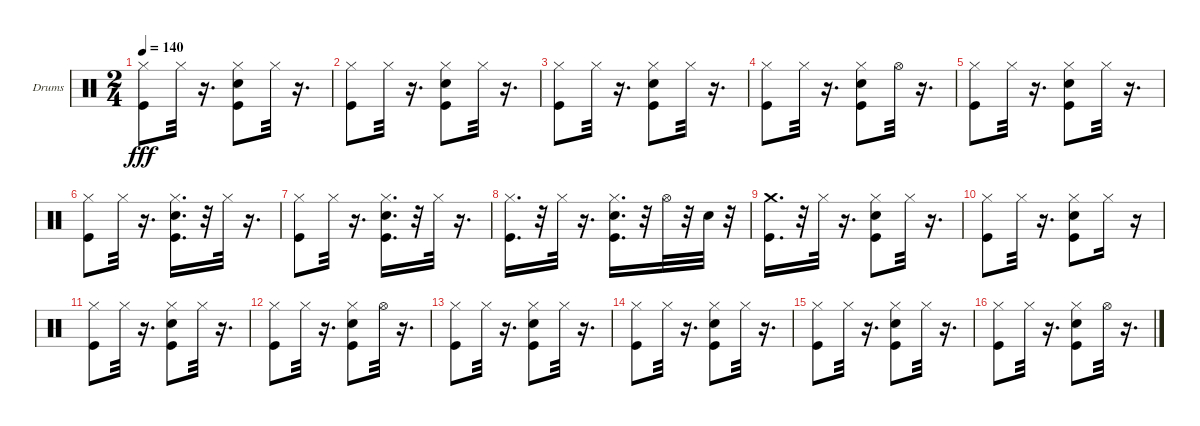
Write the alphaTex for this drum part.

\bracketExtendMode groupsimilarinstruments
\firstSystemTrackNameOrientation horizontal
\otherSystemsTrackNameOrientation horizontal
\track ("Ударные" "Drums") {instrument percussion}
\staff {score}
\articulation defaults
\ts (2 4)
\tempo 140
\clef neutral
\ks c
("Kick (hit)" "Hi-Hat (closed)").8{dy fff} "Hi-Hat (closed)".32 r.16{d} ("Snare (hit) 2" "Kick (hit)" "Hi-Hat (closed)").8 "Hi-Hat (closed)".32 r.16{d} |
("Kick (hit)" "Hi-Hat (closed)").8 "Hi-Hat (closed)".32 r.16{d} ("Snare (hit) 2" "Kick (hit)" "Hi-Hat (closed)").8 "Hi-Hat (closed)".32 r.16{d} |
("Kick (hit)" "Hi-Hat (closed)").8 "Hi-Hat (closed)".32 r.16{d} ("Snare (hit) 2" "Kick (hit)" "Hi-Hat (closed)").8 "Hi-Hat (closed)".32 r.16{d} |
("Kick (hit)" "Hi-Hat (closed)").8 "Hi-Hat (closed)".32 r.16{d} ("Snare (hit) 2" "Kick (hit)" "Hi-Hat (closed)").8 "Hi-Hat (open)".32 r.16{d} |
("Kick (hit)" "Hi-Hat (closed)").8 "Hi-Hat (closed)".32 r.16{d} ("Snare (hit) 2" "Kick (hit)" "Hi-Hat (closed)").8 "Hi-Hat (closed)".32 r.16{d} |
("Kick (hit)" "Hi-Hat (closed)").8 "Hi-Hat (closed)".32 r.16{d} ("Snare (hit) 2" "Kick (hit)" "Hi-Hat (closed)").16{d} r.32 "Hi-Hat (closed)".32 r.16{d} |
("Kick (hit)" "Hi-Hat (closed)").8 "Hi-Hat (closed)".32 r.16{d} ("Kick (hit)" "Hi-Hat (closed)" "Snare (hit) 2").16{d} r.32 "Hi-Hat (closed)".32 r.16{d} |
("Hi-Hat (closed)" "Kick (hit)").16{d} r.32 "Hi-Hat (closed)".32 r.16{d} ("Hi-Hat (closed)" "Snare (hit) 2" "Kick (hit)").16{d} r.32 "Hi-Hat (open)".32 r.32 "Snare (hit) 2".32 r.32 |
("Kick (hit)" "Crash medium (hit)").16{d} r.32 "Hi-Hat (closed)".32 r.16{d} ("Kick (hit)" "Snare (hit) 2" "Hi-Hat (closed)").8 "Hi-Hat (closed)".32 r.16{d} |
("Kick (hit)" "Hi-Hat (closed)").8 "Hi-Hat (closed)".32 r.16{d} ("Hi-Hat (closed)" "Snare (hit) 2" "Kick (hit)").8 "Hi-Hat (closed)".16 r.16 |
("Kick (hit)" "Hi-Hat (closed)").8 "Hi-Hat (closed)".32 r.16{d} ("Snare (hit) 2" "Kick (hit)" "Hi-Hat (closed)").8 "Hi-Hat (closed)".32 r.16{d} |
("Kick (hit)" "Hi-Hat (closed)").8 "Hi-Hat (closed)".32 r.16{d} ("Kick (hit)" "Snare (hit) 2" "Hi-Hat (closed)").8 "Hi-Hat (open)".32 r.16{d} |
("Kick (hit)" "Hi-Hat (closed)").8 "Hi-Hat (closed)".32 r.16{d} ("Kick (hit)" "Hi-Hat (closed)" "Snare (hit) 2").8 "Hi-Hat (closed)".32 r.16{d} |
("Kick (hit)" "Hi-Hat (closed)").8 "Hi-Hat (closed)".32 r.16{d} ("Kick (hit)" "Hi-Hat (closed)" "Snare (hit) 2").8 "Hi-Hat (closed)".32 r.16{d} |
("Kick (hit)" "Hi-Hat (closed)").8 "Hi-Hat (closed)".32 r.16{d} ("Snare (hit) 2" "Kick (hit)" "Hi-Hat (closed)").8 "Hi-Hat (closed)".32 r.16{d} |
("Kick (hit)" "Hi-Hat (closed)").8 "Hi-Hat (closed)".32 r.16{d} ("Snare (hit) 2" "Kick (hit)" "Hi-Hat (closed)").8 "Hi-Hat (open)".32 r.16{d}
